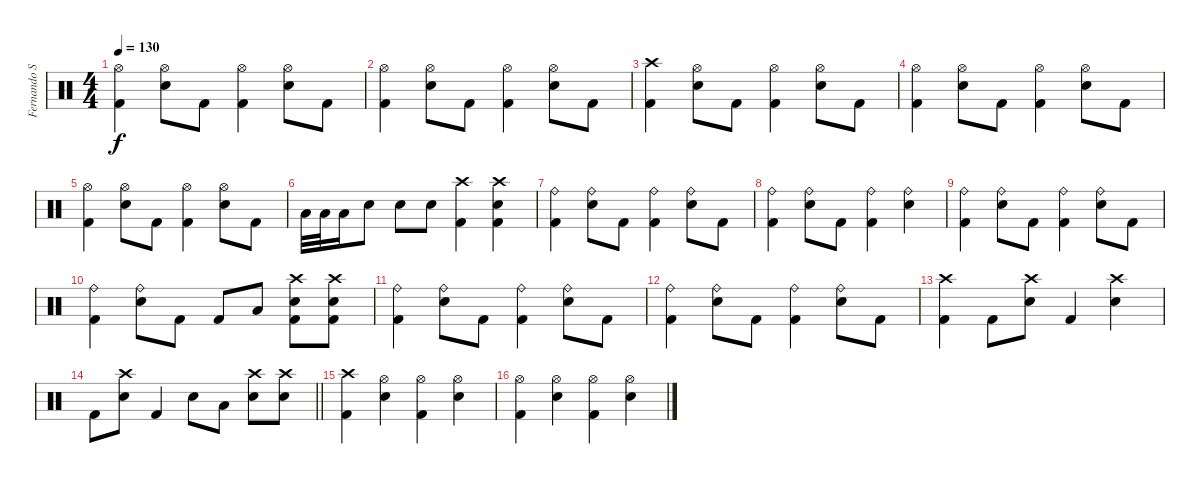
\track ("Fernando Scarcella" "Fernando S") {instrument percussion}
\staff {score}
\articulation defaults
\ts (4 4)
\tempo 130
\clef neutral
\ks c
("Hi-Hat (open)" "Kick (hit) 2").4{dy f} ("Hi-Hat (open)" "Snare (hit) 2").8 "Kick (hit) 2".8 ("Hi-Hat (open)" "Kick (hit) 2").4 ("Hi-Hat (open)" "Snare (hit) 2").8 "Kick (hit) 2".8 |
("Hi-Hat (open)" "Kick (hit) 2").4 ("Hi-Hat (open)" "Snare (hit) 2").8 "Kick (hit) 2".8 ("Hi-Hat (open)" "Kick (hit) 2").4 ("Hi-Hat (open)" "Snare (hit) 2").8 "Kick (hit) 2".8 |
("Crash high (hit)" "Kick (hit) 2").4 ("Hi-Hat (open)" "Snare (hit) 2").8 "Kick (hit) 2".8 ("Hi-Hat (open)" "Kick (hit) 2").4 ("Hi-Hat (open)" "Snare (hit) 2").8 "Kick (hit) 2".8 |
("Hi-Hat (open)" "Kick (hit) 2").4 ("Hi-Hat (open)" "Snare (hit) 2").8 "Kick (hit) 2".8 ("Hi-Hat (open)" "Kick (hit) 2").4 ("Hi-Hat (open)" "Snare (hit) 2").8 "Kick (hit) 2".8 |
("Hi-Hat (open)" "Kick (hit) 2").4 ("Hi-Hat (open)" "Snare (hit) 2").8 "Kick (hit) 2".8 ("Hi-Hat (open)" "Kick (hit) 2").4 ("Hi-Hat (open)" "Snare (hit) 2").8 "Kick (hit) 2".8 |
"Low Floor Tom (hit)".32 "Low Floor Tom (hit)".32 "Low Floor Tom (hit)".16 "Snare (hit) 2".8 "Snare (hit) 2".8 "Snare (hit) 2".8 ("Crash high (hit)" "Kick (hit) 2").4 ("Crash high (hit)" "Snare (hit) 2" "Kick (hit) 2").4 |
("Ride (bell)" "Kick (hit) 2").4 ("Ride (bell)" "Snare (hit) 2").8 "Kick (hit) 2".8 ("Ride (bell)" "Kick (hit) 2").4 ("Ride (bell)" "Snare (hit) 2").8 "Kick (hit) 2".8 |
("Ride (bell)" "Kick (hit) 2").4 ("Ride (bell)" "Snare (hit) 2").8 "Kick (hit) 2".8 ("Ride (bell)" "Kick (hit) 2").4 ("Ride (bell)" "Snare (hit) 2").4 |
("Ride (bell)" "Kick (hit) 2").4 ("Ride (bell)" "Snare (hit) 2").8 "Kick (hit) 2".8 ("Ride (bell)" "Kick (hit) 2").4 ("Ride (bell)" "Snare (hit) 2").8 "Kick (hit) 2".8 |
("Ride (bell)" "Kick (hit) 2").4 ("Ride (bell)" "Snare (hit) 2").8 "Kick (hit) 2".8 "Kick (hit) 2".8 "Low Floor Tom (hit)".8 ("Crash high (hit)" "Snare (hit) 2" "Kick (hit) 2").8 ("Crash high (hit)" "Snare (hit) 2" "Kick (hit) 2").8 |
("Ride (bell)" "Kick (hit) 2").4 ("Ride (bell)" "Snare (hit) 2").8 "Kick (hit) 2".8 ("Ride (bell)" "Kick (hit) 2").4 ("Ride (bell)" "Snare (hit) 2").8 "Kick (hit) 2".8 |
("Ride (bell)" "Kick (hit) 2").4 ("Ride (bell)" "Snare (hit) 2").8 "Kick (hit) 2".8 ("Ride (bell)" "Kick (hit) 2").4 ("Ride (bell)" "Snare (hit) 2").8 "Kick (hit) 2".8 |
("Crash high (hit)" "Kick (hit) 2").4 "Kick (hit) 2".8 ("Crash high (hit)" "Snare (hit) 2").8 "Kick (hit) 2".4 ("Crash high (hit)" "Snare (hit) 2").4 |
\barLineRight lightlight "Kick (hit) 2".8
("Crash high (hit)" "Snare (hit) 2").8 "Kick (hit) 2".4 "Snare (hit) 2".8 "Low Floor Tom (hit)".8 ("Crash high (hit)" "Snare (hit) 2").8 ("Crash high (hit)" "Snare (hit) 2").8 |
("Crash high (hit)" "Kick (hit) 2").4 ("Hi-Hat (open)" "Snare (hit) 2").4 ("Hi-Hat (open)" "Kick (hit) 2").4 ("Hi-Hat (open)" "Snare (hit) 2").4 |
("Hi-Hat (open)" "Kick (hit) 2").4 ("Hi-Hat (open)" "Snare (hit) 2").4 ("Hi-Hat (open)" "Kick (hit) 2").4 ("Hi-Hat (open)" "Snare (hit) 2").4
